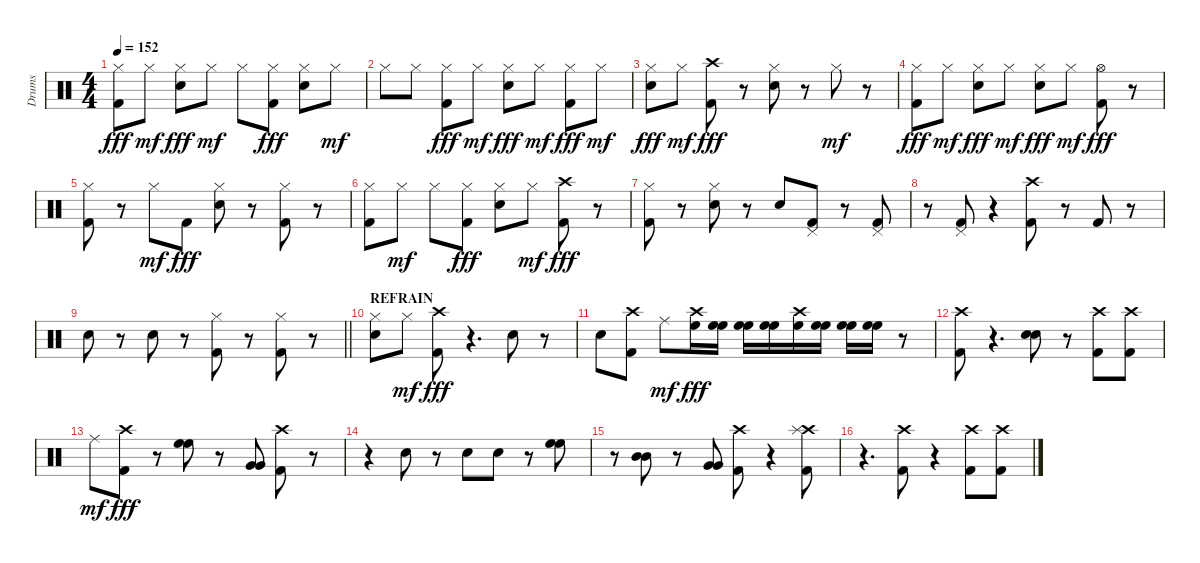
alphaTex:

\track ("Drums" "Drums") {instrument percussion}
\staff {score}
\articulation defaults
\ts (4 4)
\tempo 152
\clef neutral
\ks c
("Hi-Hat (closed)" "Kick (hit) 2").8{dy fff} "Hi-Hat (closed)".8{dy mf} ("Hi-Hat (closed)" "Electric Snare (hit)").8{dy fff} "Hi-Hat (closed)".8{dy mf} "Hi-Hat (closed)".8 ("Hi-Hat (closed)" "Kick (hit) 2").8{dy fff} ("Hi-Hat (closed)" "Electric Snare (hit)").8 "Hi-Hat (closed)".8{dy mf} |
"Hi-Hat (closed)".8 "Hi-Hat (closed)".8 ("Hi-Hat (closed)" "Kick (hit) 2").8{dy fff} "Hi-Hat (closed)".8{dy mf} ("Hi-Hat (closed)" "Electric Snare (hit)").8{dy fff} "Hi-Hat (closed)".8{dy mf} ("Hi-Hat (closed)" "Kick (hit) 2").8{dy fff} "Hi-Hat (closed)".8{dy mf} |
("Hi-Hat (closed)" "Electric Snare (hit)").8{dy fff} "Hi-Hat (closed)".8{dy mf} ("Crash high (hit)" "Kick (hit) 2").8{dy fff} r.8 ("Hi-Hat (closed)" "Electric Snare (hit)").8 r.8 "Hi-Hat (closed)".8{dy mf} r.8 |
("Hi-Hat (closed)" "Kick (hit) 2").8{dy fff} "Hi-Hat (closed)".8{dy mf} ("Hi-Hat (closed)" "Electric Snare (hit)").8{dy fff} "Hi-Hat (closed)".8{dy mf} ("Hi-Hat (closed)" "Electric Snare (hit)").8{dy fff} "Hi-Hat (closed)".8{dy mf} ("Hi-Hat (open)" "Kick (hit) 2").8{dy fff} r.8 |
("Hi-Hat (closed)" "Kick (hit) 2").8 r.8 "Hi-Hat (closed)".8{dy mf} "Kick (hit) 2".8{dy fff} ("Hi-Hat (closed)" "Electric Snare (hit)").8 r.8 ("Hi-Hat (closed)" "Kick (hit) 2").8 r.8 |
("Hi-Hat (closed)" "Kick (hit) 2").8 "Hi-Hat (closed)".8{dy mf} "Hi-Hat (closed)".8 ("Hi-Hat (closed)" "Kick (hit) 2").8{dy fff} ("Hi-Hat (closed)" "Electric Snare (hit)").8 "Hi-Hat (closed)".8{dy mf} ("Crash high (hit)" "Kick (hit) 2").8{dy fff} r.8 |
("Hi-Hat (closed)" "Kick (hit) 2").8 r.8 ("Hi-Hat (closed)" "Electric Snare (hit)").8 r.8 "Electric Snare (hit)".8 ("Pedal Hi-Hat (hit)" "Kick (hit) 2").8 r.8 ("Pedal Hi-Hat (hit)" "Kick (hit) 2").8 |
r.8 ("Pedal Hi-Hat (hit)" "Kick (hit) 2").8 r.4 ("Crash high (hit)" "Kick (hit) 2").8 r.8 "Kick (hit) 2".8 r.8 |
\barLineRight lightlight "Electric Snare (hit)".8
r.8 "Electric Snare (hit)".8 r.8 ("Hi-Hat (closed)" "Kick (hit) 2").8 r.8 ("Hi-Hat (closed)" "Kick (hit) 2").8 r.8 |
\section ("" "REFRAIN")
("Hi-Hat (closed)" "Electric Snare (hit)").8 "Hi-Hat (closed)".8{dy mf} ("Crash high (hit)" "Kick (hit) 2").8{dy fff} r.4{d} "Electric Snare (hit)".8 r.8 |
"Electric Snare (hit)".8 ("Crash high (hit)" "Kick (hit) 2").8 "Ride (middle)".8{dy mf} ("Crash high (hit)" "High Floor Tom (hit)").16{dy fff} ("High Floor Tom (hit)" "High Floor Tom (hit)").16 ("High Floor Tom (hit)" "High Floor Tom (hit)").16 ("High Floor Tom (hit)" "High Floor Tom (hit)").16 ("Crash high (hit)" "High Floor Tom (hit)").16 ("High Floor Tom (hit)" "High Floor Tom (hit)").16 ("High Floor Tom (hit)" "High Floor Tom (hit)").16 ("High Floor Tom (hit)" "High Floor Tom (hit)").16 r.8 |
("Crash high (hit)" "Kick (hit) 2").8 r.4{d} ("Electric Snare (hit)" "Electric Snare (hit)").8 r.8 ("Crash high (hit)" "Kick (hit) 2").8 ("Crash high (hit)" "Kick (hit) 2").8 |
"Ride (middle)".8{dy mf} ("Crash high (hit)" "Kick (hit) 2").8{dy fff} r.8 ("High Floor Tom (hit)" "High Floor Tom (hit)").8 r.8 ("Very Low Tom (hit)" "Very Low Tom (hit)").8 ("Crash high (hit)" "Kick (hit) 2").8 r.8 |
r.4 "Electric Snare (hit)".8 r.8 "Electric Snare (hit)".8 "Electric Snare (hit)".8 r.8 ("High Floor Tom (hit)" "High Floor Tom (hit)").8 |
r.8 ("Mid Tom (hit)" "Mid Tom (hit)").8 r.8 ("Very Low Tom (hit)" "Very Low Tom (hit)").8 ("Crash high (hit)" "Kick (hit) 2").8 r.4 ("Crash high (hit)" "Splash (hit)" "Kick (hit) 2").8 |
r.4{d} ("Crash high (hit)" "Kick (hit) 2").8 r.4 ("Crash high (hit)" "Kick (hit) 2").8 ("Crash high (hit)" "Kick (hit) 2").8
